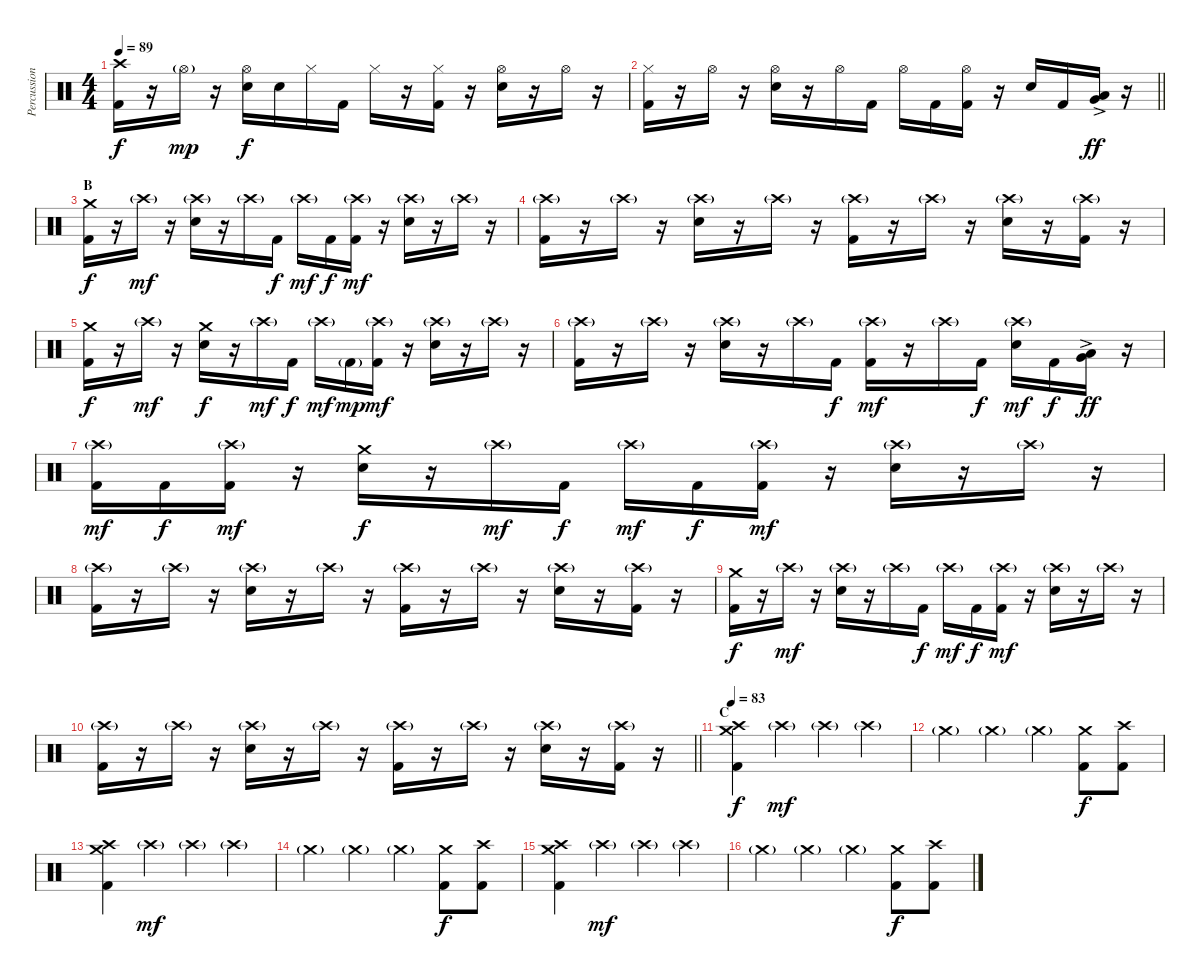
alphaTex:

\track ("Percussion" "Percussion") {instrument percussion}
\staff {score}
\articulation defaults
\ts (4 4)
\tempo 89
\clef neutral
\ks c
("Crash high (hit)" "Kick (hit) 2").16{dy f} r.16 "Hi-Hat (open)"{g}.16{dy mp} r.16 ("Hi-Hat (open)" "Electric Snare (hit)").16{dy f} "Electric Snare (hit)".16 "Hi-Hat (closed)".16 "Kick (hit) 2".16 "Hi-Hat (closed)".16 r.16 ("Hi-Hat (closed)" "Kick (hit) 2").16 r.16 ("Hi-Hat (open)" "Electric Snare (hit)").16 r.16 "Hi-Hat (open)".16 r.16 |
\barLineRight lightlight
("Hi-Hat (closed)" "Kick (hit) 2").16 r.16 "Hi-Hat (open)".16 r.16 ("Hi-Hat (open)" "Electric Snare (hit)").16 r.16 "Hi-Hat (open)".16 "Kick (hit) 2".16 "Hi-Hat (open)".16 "Kick (hit) 2".16 ("Hi-Hat (open)" "Kick (hit) 2").16 r.16 "Electric Snare (hit)".16 "Kick (hit) 2".16 ("Low Tom (hit)"{ac} "Very Low Tom (hit)"{ac}).16{dy ff} r.16 |
\section ("" "B")
("Crash medium (hit)" "Kick (hit) 2").16{dy f} r.16 "Crash high (hit)"{g}.16{dy mf} r.16 ("Crash high (hit)"{g} "Electric Snare (hit)").16 r.16 "Crash high (hit)"{g}.16 "Kick (hit) 2".16{dy f} "Crash high (hit)"{g}.16{dy mf} "Kick (hit) 2".16{dy f} ("Crash high (hit)"{g} "Kick (hit) 2").16{dy mf} r.16 ("Crash high (hit)"{g} "Electric Snare (hit)").16 r.16 "Crash high (hit)"{g}.16 r.16 |
("Crash high (hit)"{g} "Kick (hit) 2").16 r.16 "Crash high (hit)"{g}.16 r.16 ("Crash high (hit)"{g} "Electric Snare (hit)").16 r.16 "Crash high (hit)"{g}.16 r.16 ("Crash high (hit)"{g} "Kick (hit) 2").16 r.16 "Crash high (hit)"{g}.16 r.16 ("Crash high (hit)"{g} "Electric Snare (hit)").16 r.16 ("Crash high (hit)"{g} "Kick (hit) 2").16 r.16 |
("Crash medium (hit)" "Kick (hit) 2").16{dy f} r.16 "Crash high (hit)"{g}.16{dy mf} r.16 ("Crash medium (hit)" "Electric Snare (hit)").16{dy f} r.16 "Crash high (hit)"{g}.16{dy mf} "Kick (hit) 2".16{dy f} "Crash high (hit)"{g}.16{dy mf} "Kick (hit) 2"{g}.16{dy mp} ("Crash high (hit)"{g} "Kick (hit) 2").16{dy mf} r.16 ("Crash high (hit)"{g} "Electric Snare (hit)").16 r.16 "Crash high (hit)"{g}.16 r.16 |
("Crash high (hit)"{g} "Kick (hit) 2").16 r.16 "Crash high (hit)"{g}.16 r.16 ("Crash high (hit)"{g} "Electric Snare (hit)").16 r.16 "Crash high (hit)"{g}.16 "Kick (hit) 2".16{dy f} ("Crash high (hit)"{g} "Kick (hit) 2").16{dy mf} r.16 "Crash high (hit)"{g}.16 "Kick (hit) 2".16{dy f} ("Crash high (hit)"{g} "Electric Snare (hit)").16{dy mf} "Kick (hit) 2".16{dy f} ("Low Tom (hit)"{ac} "Very Low Tom (hit)"{ac}).16{dy ff} r.16 |
("Crash high (hit)"{g} "Kick (hit) 2").16{dy mf} "Kick (hit) 2".16{dy f} ("Crash high (hit)"{g} "Kick (hit) 2").16{dy mf} r.16 ("Crash medium (hit)" "Electric Snare (hit)").16{dy f} r.16 "Crash high (hit)"{g}.16{dy mf} "Kick (hit) 2".16{dy f} "Crash high (hit)"{g}.16{dy mf} "Kick (hit) 2".16{dy f} ("Crash high (hit)"{g} "Kick (hit) 2").16{dy mf} r.16 ("Crash high (hit)"{g} "Electric Snare (hit)").16 r.16 "Crash high (hit)"{g}.16 r.16 |
("Crash high (hit)"{g} "Kick (hit) 2").16 r.16 "Crash high (hit)"{g}.16 r.16 ("Crash high (hit)"{g} "Electric Snare (hit)").16 r.16 "Crash high (hit)"{g}.16 r.16 ("Crash high (hit)"{g} "Kick (hit) 2").16 r.16 "Crash high (hit)"{g}.16 r.16 ("Crash high (hit)"{g} "Electric Snare (hit)").16 r.16 ("Crash high (hit)"{g} "Kick (hit) 2").16 r.16 |
("Crash medium (hit)" "Kick (hit) 2").16{dy f} r.16 "Crash high (hit)"{g}.16{dy mf} r.16 ("Crash high (hit)"{g} "Electric Snare (hit)").16 r.16 "Crash high (hit)"{g}.16 "Kick (hit) 2".16{dy f} "Crash high (hit)"{g}.16{dy mf} "Kick (hit) 2".16{dy f} ("Crash high (hit)"{g} "Kick (hit) 2").16{dy mf} r.16 ("Crash high (hit)"{g} "Electric Snare (hit)").16 r.16 "Crash high (hit)"{g}.16 r.16 |
\barLineRight lightlight
("Crash high (hit)"{g} "Kick (hit) 2").16 r.16 "Crash high (hit)"{g}.16 r.16 ("Crash high (hit)"{g} "Electric Snare (hit)").16 r.16 "Crash high (hit)"{g}.16 r.16 ("Crash high (hit)"{g} "Kick (hit) 2").16 r.16 "Crash high (hit)"{g}.16 r.16 ("Crash high (hit)"{g} "Electric Snare (hit)").16 r.16 ("Crash high (hit)"{g} "Kick (hit) 2").16 r.16 |
\section ("" "C")
\tempo 83
("Crash medium (hit)" "Crash high (hit)" "Kick (hit) 2").4{dy f} "Crash high (hit)"{g}.4{dy mf} "Crash high (hit)"{g}.4 "Crash high (hit)"{g}.4 |
"Crash medium (hit)"{g}.4 "Crash medium (hit)"{g}.4 "Crash medium (hit)"{g}.4 ("Crash medium (hit)" "Kick (hit) 2").8{dy f} ("Crash high (hit)" "Kick (hit) 2").8 |
("Crash medium (hit)" "Crash high (hit)" "Kick (hit) 2").4 "Crash high (hit)"{g}.4{dy mf} "Crash high (hit)"{g}.4 "Crash high (hit)"{g}.4 |
"Crash medium (hit)"{g}.4 "Crash medium (hit)"{g}.4 "Crash medium (hit)"{g}.4 ("Crash medium (hit)" "Kick (hit) 2").8{dy f} ("Crash high (hit)" "Kick (hit) 2").8 |
("Crash medium (hit)" "Crash high (hit)" "Kick (hit) 2").4 "Crash high (hit)"{g}.4{dy mf} "Crash high (hit)"{g}.4 "Crash high (hit)"{g}.4 |
"Crash medium (hit)"{g}.4 "Crash medium (hit)"{g}.4 "Crash medium (hit)"{g}.4 ("Crash medium (hit)" "Kick (hit) 2").8{dy f} ("Crash high (hit)" "Kick (hit) 2").8
